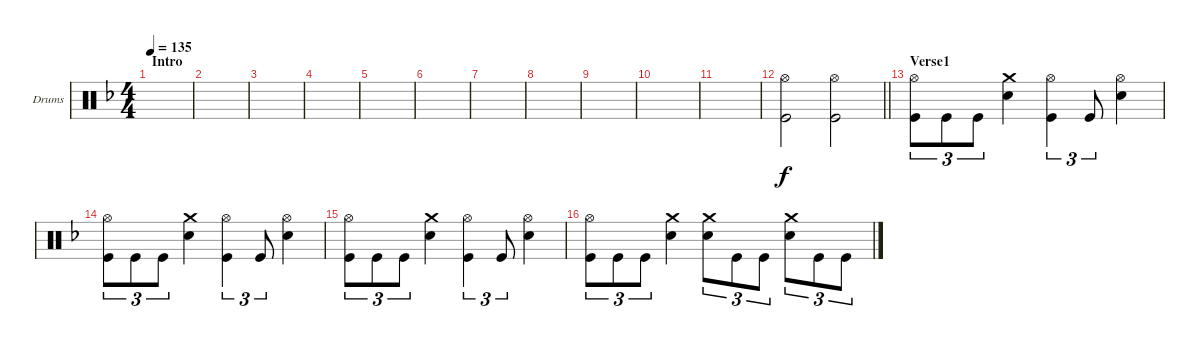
\bracketExtendMode groupsimilarinstruments
\firstSystemTrackNameOrientation horizontal
\otherSystemsTrackNameOrientation horizontal
\track ("drums (Anton Zulganov)" "Drums") {instrument percussion}
\staff {score}
\articulation defaults
\ts (4 4)
\beaming (8 2 2 2 2)
\section ("" "Intro")
\tempo 135
\clef neutral
\ks dminor
|
|
|
|
|
|
|
|
|
|
|
\barLineRight lightlight
("Kick (hit)" "Hi-Hat (open)").2 ("Kick (hit)" "Hi-Hat (open)").2 |
\section ("" "Verse1")
("Hi-Hat (open)" "Kick (hit)").8{tu (3 2)} "Kick (hit)".8{tu (3 2)} "Kick (hit)".8{tu (3 2)} ("Snare (hit) 2" "Crash medium (hit)").4 ("Hi-Hat (open)" "Kick (hit)").4{tu (3 2)} "Kick (hit)".8{tu (3 2)} ("Hi-Hat (open)" "Snare (hit) 2").4 |
("Hi-Hat (open)" "Kick (hit)").8{tu (3 2)} "Kick (hit)".8{tu (3 2)} "Kick (hit)".8{tu (3 2)} ("Snare (hit) 2" "Crash medium (hit)").4 ("Kick (hit)" "Hi-Hat (open)").4{tu (3 2)} "Kick (hit)".8{tu (3 2)} ("Hi-Hat (open)" "Snare (hit) 2").4 |
("Hi-Hat (open)" "Kick (hit)").8{tu (3 2)} "Kick (hit)".8{tu (3 2)} "Kick (hit)".8{tu (3 2)} ("Snare (hit) 2" "Crash medium (hit)").4 ("Kick (hit)" "Hi-Hat (open)").4{tu (3 2)} "Kick (hit)".8{tu (3 2)} ("Hi-Hat (open)" "Snare (hit) 2").4 |
("Hi-Hat (open)" "Kick (hit)").8{tu (3 2)} "Kick (hit)".8{tu (3 2)} "Kick (hit)".8{tu (3 2)} ("Snare (hit) 2" "Crash medium (hit)").4 ("Crash medium (hit)" "Snare (hit) 2").8{tu (3 2)} "Kick (hit)".8{tu (3 2)} "Kick (hit)".8{tu (3 2)} ("Crash medium (hit)" "Snare (hit) 2").8{tu (3 2)} "Kick (hit)".8{tu (3 2)} "Kick (hit)".8{tu (3 2)}
